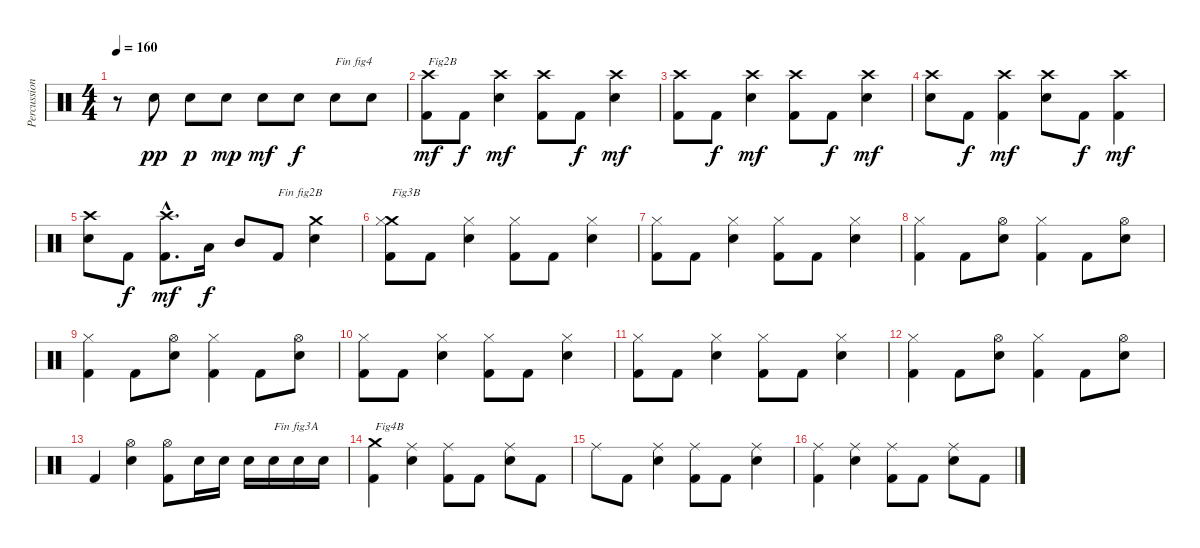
\track ("Percussions" "Percussion") {instrument percussion}
\staff {score}
\articulation defaults
\ts (4 4)
\tempo 160
\clef neutral
\ks c
r.8{dy f} "Electric Snare (hit)".8{dy pp} "Electric Snare (hit)".8{dy p} "Electric Snare (hit)".8{dy mp} "Electric Snare (hit)".8{dy mf} "Electric Snare (hit)".8{dy f} "Electric Snare (hit)".8{txt "Fin fig4"} "Electric Snare (hit)".8 |
("Kick (hit) 2" "Crash high (hit)").8{txt "Fig2B" dy mf} "Kick (hit) 2".8{dy f} ("Electric Snare (hit)" "Crash high (hit)").4{dy mf} ("Kick (hit) 2" "Crash high (hit)").8 "Kick (hit) 2".8{dy f} ("Electric Snare (hit)" "Crash high (hit)").4{dy mf} |
("Kick (hit) 2" "Crash high (hit)").8 "Kick (hit) 2".8{dy f} ("Electric Snare (hit)" "Crash high (hit)").4{dy mf} ("Kick (hit) 2" "Crash high (hit)").8 "Kick (hit) 2".8{dy f} ("Electric Snare (hit)" "Crash high (hit)").4{dy mf} |
("Electric Snare (hit)" "Crash high (hit)").8 "Kick (hit) 2".8{dy f} ("Kick (hit) 2" "Crash high (hit)").4{dy mf} ("Electric Snare (hit)" "Crash high (hit)").8 "Kick (hit) 2".8{dy f} ("Kick (hit) 2" "Crash high (hit)").4{dy mf} |
("Electric Snare (hit)" "Crash high (hit)").8 "Kick (hit) 2".8{dy f} ("Kick (hit) 2"{hac} "Crash high (hit)"{hac}).8{d dy mf} "Low Tom (hit)".16{dy f} "Mid Tom (hit)".8 "Kick (hit) 2".8{txt "Fin fig2B"} ("Electric Snare (hit)" "Crash medium (hit)").4 |
("Kick (hit) 2" "Crash medium (hit)" "Hi-Hat (closed)").8{txt "Fig3B"} "Kick (hit) 2".8 ("Electric Snare (hit)" "Hi-Hat (closed)").4 ("Kick (hit) 2" "Hi-Hat (closed)").8 "Kick (hit) 2".8 ("Electric Snare (hit)" "Hi-Hat (closed)").4 |
("Kick (hit) 2" "Hi-Hat (closed)").8 "Kick (hit) 2".8 ("Electric Snare (hit)" "Hi-Hat (closed)").4 ("Kick (hit) 2" "Hi-Hat (closed)").8 "Kick (hit) 2".8 ("Electric Snare (hit)" "Hi-Hat (closed)").4 |
("Kick (hit) 2" "Hi-Hat (closed)").4 "Kick (hit) 2".8 ("Electric Snare (hit)" "Hi-Hat (open)").8 ("Kick (hit) 2" "Hi-Hat (closed)").4 "Kick (hit) 2".8 ("Electric Snare (hit)" "Hi-Hat (open)").8 |
("Kick (hit) 2" "Hi-Hat (closed)").4 "Kick (hit) 2".8 ("Electric Snare (hit)" "Hi-Hat (open)").8 ("Kick (hit) 2" "Hi-Hat (closed)").4 "Kick (hit) 2".8 ("Electric Snare (hit)" "Hi-Hat (open)").8 |
("Kick (hit) 2" "Hi-Hat (closed)").8 "Kick (hit) 2".8 ("Electric Snare (hit)" "Hi-Hat (closed)").4 ("Kick (hit) 2" "Hi-Hat (closed)").8 "Kick (hit) 2".8 ("Electric Snare (hit)" "Hi-Hat (closed)").4 |
("Kick (hit) 2" "Hi-Hat (closed)").8 "Kick (hit) 2".8 ("Electric Snare (hit)" "Hi-Hat (closed)").4 ("Kick (hit) 2" "Hi-Hat (closed)").8 "Kick (hit) 2".8 ("Electric Snare (hit)" "Hi-Hat (closed)").4 |
("Kick (hit) 2" "Hi-Hat (closed)").4 "Kick (hit) 2".8 ("Electric Snare (hit)" "Hi-Hat (open)").8 ("Kick (hit) 2" "Hi-Hat (closed)").4 "Kick (hit) 2".8 ("Electric Snare (hit)" "Hi-Hat (open)").8 |
"Kick (hit) 2".4 ("Electric Snare (hit)" "Hi-Hat (open)").4 ("Kick (hit) 2" "Hi-Hat (open)").8 "Electric Snare (hit)".16 "Electric Snare (hit)".16 "Electric Snare (hit)".16 "Electric Snare (hit)".16{txt "Fin fig3A"} "Electric Snare (hit)".16 "Electric Snare (hit)".16 |
("Kick (hit) 2" "Crash medium (hit)").4{txt "Fig4B"} ("Electric Snare (hit)" "Ride (middle)").4 ("Kick (hit) 2" "Ride (middle)").8 "Kick (hit) 2".8 ("Electric Snare (hit)" "Ride (middle)").8 "Kick (hit) 2".8 |
"Ride (middle)".8 "Kick (hit) 2".8 ("Electric Snare (hit)" "Ride (middle)").4 ("Kick (hit) 2" "Ride (middle)").8 "Kick (hit) 2".8 ("Electric Snare (hit)" "Ride (middle)").4 |
("Kick (hit) 2" "Ride (middle)").4 ("Electric Snare (hit)" "Ride (middle)").4 ("Kick (hit) 2" "Ride (middle)").8 "Kick (hit) 2".8 ("Electric Snare (hit)" "Ride (middle)").8 "Kick (hit) 2".8
